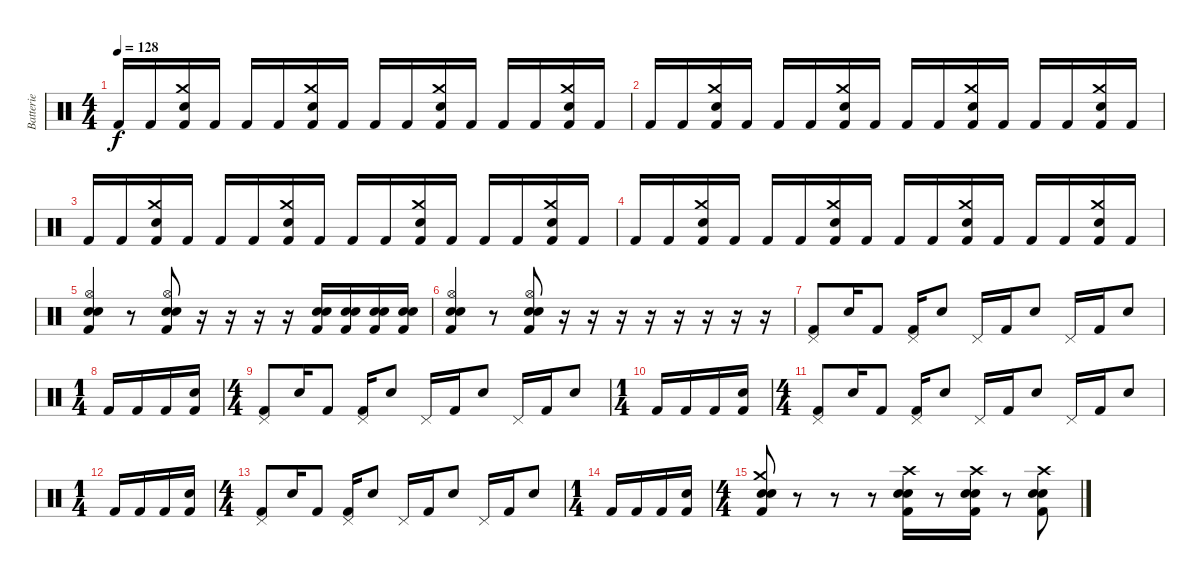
\track ("Batterie" "Batterie") {instrument percussion}
\staff {score}
\articulation defaults
\ts (4 4)
\tempo 128
\clef neutral
\ks c "Kick (hit) 2".16{dy f} "Kick (hit) 2".16
("Crash medium (hit)" "Electric Snare (hit)" "Kick (hit) 2").16 "Kick (hit) 2".16 "Kick (hit) 2".16 "Kick (hit) 2".16 ("Crash medium (hit)" "Electric Snare (hit)" "Kick (hit) 2").16 "Kick (hit) 2".16 "Kick (hit) 2".16 "Kick (hit) 2".16 ("Electric Snare (hit)" "Crash medium (hit)" "Kick (hit) 2").16 "Kick (hit) 2".16 "Kick (hit) 2".16 "Kick (hit) 2".16 ("Crash medium (hit)" "Electric Snare (hit)" "Kick (hit) 2").16 "Kick (hit) 2".16 |
"Kick (hit) 2".16 "Kick (hit) 2".16 ("Crash medium (hit)" "Electric Snare (hit)" "Kick (hit) 2").16 "Kick (hit) 2".16 "Kick (hit) 2".16 "Kick (hit) 2".16 ("Crash medium (hit)" "Electric Snare (hit)" "Kick (hit) 2").16 "Kick (hit) 2".16 "Kick (hit) 2".16 "Kick (hit) 2".16 ("Electric Snare (hit)" "Crash medium (hit)" "Kick (hit) 2").16 "Kick (hit) 2".16 "Kick (hit) 2".16 "Kick (hit) 2".16 ("Crash medium (hit)" "Electric Snare (hit)" "Kick (hit) 2").16 "Kick (hit) 2".16 |
"Kick (hit) 2".16 "Kick (hit) 2".16 ("Crash medium (hit)" "Electric Snare (hit)" "Kick (hit) 2").16 "Kick (hit) 2".16 "Kick (hit) 2".16 "Kick (hit) 2".16 ("Crash medium (hit)" "Electric Snare (hit)" "Kick (hit) 2").16 "Kick (hit) 2".16 "Kick (hit) 2".16 "Kick (hit) 2".16 ("Electric Snare (hit)" "Crash medium (hit)" "Kick (hit) 2").16 "Kick (hit) 2".16 "Kick (hit) 2".16 "Kick (hit) 2".16 ("Crash medium (hit)" "Electric Snare (hit)" "Kick (hit) 2").16 "Kick (hit) 2".16 |
"Kick (hit) 2".16 "Kick (hit) 2".16 ("Crash medium (hit)" "Electric Snare (hit)" "Kick (hit) 2").16 "Kick (hit) 2".16 "Kick (hit) 2".16 "Kick (hit) 2".16 ("Crash medium (hit)" "Electric Snare (hit)" "Kick (hit) 2").16 "Kick (hit) 2".16 "Kick (hit) 2".16 "Kick (hit) 2".16 ("Electric Snare (hit)" "Crash medium (hit)" "Kick (hit) 2").16 "Kick (hit) 2".16 "Kick (hit) 2".16 "Kick (hit) 2".16 ("Crash medium (hit)" "Electric Snare (hit)" "Kick (hit) 2").16 "Kick (hit) 2".16 |
("Hi-Hat (open)" "Snare (hit) 2" "Electric Snare (hit)" "Kick (hit) 2").4 r.8 ("Hi-Hat (open)" "Snare (hit) 2" "Electric Snare (hit)" "Kick (hit) 2").8 r.16 r.16 r.16 r.16 ("Kick (hit) 2" "Snare (hit) 2" "Electric Snare (hit)").16 ("Kick (hit) 2" "Snare (hit) 2" "Electric Snare (hit)").16 ("Kick (hit) 2" "Snare (hit) 2" "Electric Snare (hit)").16 ("Kick (hit) 2" "Snare (hit) 2" "Electric Snare (hit)").16 |
("Hi-Hat (open)" "Snare (hit) 2" "Electric Snare (hit)" "Kick (hit) 2").4 r.8 ("Hi-Hat (open)" "Snare (hit) 2" "Electric Snare (hit)" "Kick (hit) 2").8 r.16 r.16 r.16 r.16 r.16 r.16 r.16 r.16 |
("Pedal Hi-Hat (hit)" "Kick (hit) 2").8 "Electric Snare (hit)".16 "Kick (hit) 2".8 ("Pedal Hi-Hat (hit)" "Kick (hit) 2").16 "Electric Snare (hit)".8 "Pedal Hi-Hat (hit)".16 "Kick (hit) 2".16 "Electric Snare (hit)".8 "Pedal Hi-Hat (hit)".16 "Kick (hit) 2".16 "Electric Snare (hit)".8 |
\ts (1 4)
"Kick (hit) 2".16 "Kick (hit) 2".16 "Kick (hit) 2".16 ("Electric Snare (hit)" "Kick (hit) 2").16 |
\ts (4 4)
("Pedal Hi-Hat (hit)" "Kick (hit) 2").8 "Electric Snare (hit)".16 "Kick (hit) 2".8 ("Pedal Hi-Hat (hit)" "Kick (hit) 2").16 "Electric Snare (hit)".8 "Pedal Hi-Hat (hit)".16 "Kick (hit) 2".16 "Electric Snare (hit)".8 "Pedal Hi-Hat (hit)".16 "Kick (hit) 2".16 "Electric Snare (hit)".8 |
\ts (1 4)
"Kick (hit) 2".16 "Kick (hit) 2".16 "Kick (hit) 2".16 ("Electric Snare (hit)" "Kick (hit) 2").16 |
\ts (4 4)
("Pedal Hi-Hat (hit)" "Kick (hit) 2").8 "Electric Snare (hit)".16 "Kick (hit) 2".8 ("Pedal Hi-Hat (hit)" "Kick (hit) 2").16 "Electric Snare (hit)".8 "Pedal Hi-Hat (hit)".16 "Kick (hit) 2".16 "Electric Snare (hit)".8 "Pedal Hi-Hat (hit)".16 "Kick (hit) 2".16 "Electric Snare (hit)".8 |
\ts (1 4)
"Kick (hit) 2".16 "Kick (hit) 2".16 "Kick (hit) 2".16 ("Electric Snare (hit)" "Kick (hit) 2").16 |
\ts (4 4)
("Pedal Hi-Hat (hit)" "Kick (hit) 2").8 "Electric Snare (hit)".16 "Kick (hit) 2".8 ("Pedal Hi-Hat (hit)" "Kick (hit) 2").16 "Electric Snare (hit)".8 "Pedal Hi-Hat (hit)".16 "Kick (hit) 2".16 "Electric Snare (hit)".8 "Pedal Hi-Hat (hit)".16 "Kick (hit) 2".16 "Electric Snare (hit)".8 |
\ts (1 4)
"Kick (hit) 2".16 "Kick (hit) 2".16 "Kick (hit) 2".16 ("Electric Snare (hit)" "Kick (hit) 2").16 |
\ts (4 4)
("Crash medium (hit)" "Snare (hit) 2" "Electric Snare (hit)" "Kick (hit) 2").8 r.8 r.8 r.8 ("Crash high (hit)" "Snare (hit) 2" "Electric Snare (hit)" "Kick (hit) 2").16 r.8 ("Crash high (hit)" "Snare (hit) 2" "Electric Snare (hit)" "Kick (hit) 2").16 r.8 ("Crash high (hit)" "Snare (hit) 2" "Electric Snare (hit)" "Kick (hit) 2").8
